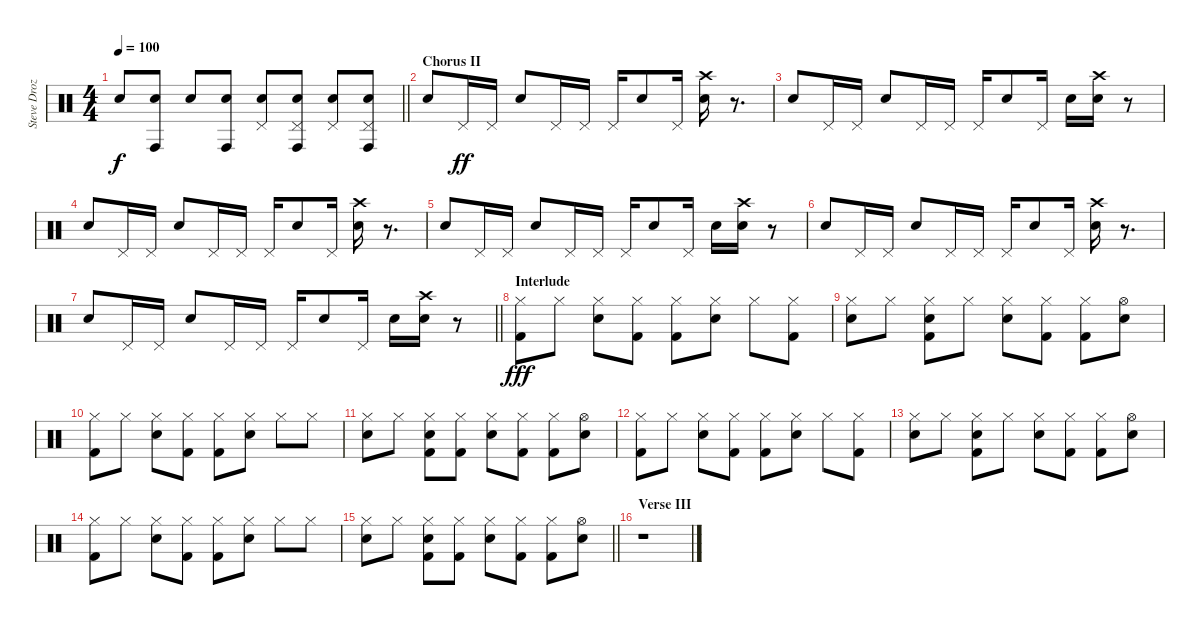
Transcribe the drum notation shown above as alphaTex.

\track ("Steve Drozd" "Steve Droz") {instrument percussion}
\staff {score}
\articulation defaults
\ts (4 4)
\tempo 100
\clef neutral
\barLineRight lightlight
\ks c "Snare (hit)".8{dy f}
("Conga high (hit)" "Snare (hit)").8 "Snare (hit)".8 ("Conga high (hit)" "Snare (hit)").8 ("Pedal Hi-Hat (hit)" "Snare (hit)").8 ("Pedal Hi-Hat (hit)" "Conga high (hit)" "Snare (hit)").8 ("Pedal Hi-Hat (hit)" "Snare (hit)").8 ("Pedal Hi-Hat (hit)" "Conga high (hit)" "Snare (hit)").8 |
\section ("" "Chorus II")
"Snare (hit) 2".8 "Pedal Hi-Hat (hit)".16{dy ff} "Pedal Hi-Hat (hit)".16 "Snare (hit) 2".8 "Pedal Hi-Hat (hit)".16 "Pedal Hi-Hat (hit)".16 "Pedal Hi-Hat (hit)".16 "Snare (hit) 2".8 "Pedal Hi-Hat (hit)".16 ("Crash high (hit)" "Snare (hit) 2").16 r.8{d} |
"Snare (hit) 2".8 "Pedal Hi-Hat (hit)".16 "Pedal Hi-Hat (hit)".16 "Snare (hit) 2".8 "Pedal Hi-Hat (hit)".16 "Pedal Hi-Hat (hit)".16 "Pedal Hi-Hat (hit)".16 "Snare (hit) 2".8 "Pedal Hi-Hat (hit)".16 "Snare (hit) 2".16 ("Crash high (hit)" "Snare (hit) 2").16 r.8 |
"Snare (hit) 2".8 "Pedal Hi-Hat (hit)".16 "Pedal Hi-Hat (hit)".16 "Snare (hit) 2".8 "Pedal Hi-Hat (hit)".16 "Pedal Hi-Hat (hit)".16 "Pedal Hi-Hat (hit)".16 "Snare (hit) 2".8 "Pedal Hi-Hat (hit)".16 ("Crash high (hit)" "Snare (hit) 2").16 r.8{d} |
"Snare (hit) 2".8 "Pedal Hi-Hat (hit)".16 "Pedal Hi-Hat (hit)".16 "Snare (hit) 2".8 "Pedal Hi-Hat (hit)".16 "Pedal Hi-Hat (hit)".16 "Pedal Hi-Hat (hit)".16 "Snare (hit) 2".8 "Pedal Hi-Hat (hit)".16 "Snare (hit) 2".16 ("Crash high (hit)" "Snare (hit) 2").16 r.8 |
"Snare (hit) 2".8 "Pedal Hi-Hat (hit)".16 "Pedal Hi-Hat (hit)".16 "Snare (hit) 2".8 "Pedal Hi-Hat (hit)".16 "Pedal Hi-Hat (hit)".16 "Pedal Hi-Hat (hit)".16 "Snare (hit) 2".8 "Pedal Hi-Hat (hit)".16 ("Crash high (hit)" "Snare (hit) 2").16 r.8{d} |
\barLineRight lightlight "Snare (hit) 2".8 "Pedal Hi-Hat (hit)".16 "Pedal Hi-Hat (hit)".16 "Snare (hit) 2".8 "Pedal Hi-Hat (hit)".16 "Pedal Hi-Hat (hit)".16 "Pedal Hi-Hat (hit)".16 "Snare (hit) 2".8 "Pedal Hi-Hat (hit)".16 "Snare (hit) 2".16
("Crash high (hit)" "Snare (hit) 2").16 r.8 |
\section ("" "Interlude")
("Kick (hit) 2" "Hi-Hat (closed)").8{dy fff} "Hi-Hat (closed)".8 ("Electric Snare (hit)" "Hi-Hat (closed)").8 ("Kick (hit) 2" "Hi-Hat (closed)").8 ("Kick (hit) 2" "Hi-Hat (closed)").8 ("Electric Snare (hit)" "Hi-Hat (closed)").8 "Hi-Hat (closed)".8 ("Kick (hit) 2" "Hi-Hat (closed)").8 |
("Electric Snare (hit)" "Hi-Hat (closed)").8 "Hi-Hat (closed)".8 ("Kick (hit) 2" "Electric Snare (hit)" "Hi-Hat (closed)").8 "Hi-Hat (closed)".8 ("Electric Snare (hit)" "Hi-Hat (closed)").8 ("Kick (hit) 2" "Hi-Hat (closed)").8 ("Kick (hit) 2" "Hi-Hat (closed)").8 ("Electric Snare (hit)" "Hi-Hat (open)").8 |
("Kick (hit) 2" "Hi-Hat (closed)").8 "Hi-Hat (closed)".8 ("Electric Snare (hit)" "Hi-Hat (closed)").8 ("Kick (hit) 2" "Hi-Hat (closed)").8 ("Kick (hit) 2" "Hi-Hat (closed)").8 ("Electric Snare (hit)" "Hi-Hat (closed)").8 "Hi-Hat (closed)".8 "Hi-Hat (closed)".8 |
("Electric Snare (hit)" "Hi-Hat (closed)").8 "Hi-Hat (closed)".8 ("Kick (hit) 2" "Electric Snare (hit)" "Hi-Hat (closed)").8 ("Kick (hit) 2" "Hi-Hat (closed)").8 ("Electric Snare (hit)" "Hi-Hat (closed)").8 ("Kick (hit) 2" "Hi-Hat (closed)").8 ("Kick (hit) 2" "Hi-Hat (closed)").8 ("Electric Snare (hit)" "Hi-Hat (open)").8 |
("Kick (hit) 2" "Hi-Hat (closed)").8 "Hi-Hat (closed)".8 ("Electric Snare (hit)" "Hi-Hat (closed)").8 ("Kick (hit) 2" "Hi-Hat (closed)").8 ("Kick (hit) 2" "Hi-Hat (closed)").8 ("Electric Snare (hit)" "Hi-Hat (closed)").8 "Hi-Hat (closed)".8 ("Kick (hit) 2" "Hi-Hat (closed)").8 |
("Electric Snare (hit)" "Hi-Hat (closed)").8 "Hi-Hat (closed)".8 ("Kick (hit) 2" "Electric Snare (hit)" "Hi-Hat (closed)").8 "Hi-Hat (closed)".8 ("Electric Snare (hit)" "Hi-Hat (closed)").8 ("Kick (hit) 2" "Hi-Hat (closed)").8 ("Kick (hit) 2" "Hi-Hat (closed)").8 ("Electric Snare (hit)" "Hi-Hat (open)").8 |
("Kick (hit) 2" "Hi-Hat (closed)").8 "Hi-Hat (closed)".8 ("Electric Snare (hit)" "Hi-Hat (closed)").8 ("Kick (hit) 2" "Hi-Hat (closed)").8 ("Kick (hit) 2" "Hi-Hat (closed)").8 ("Electric Snare (hit)" "Hi-Hat (closed)").8 "Hi-Hat (closed)".8 "Hi-Hat (closed)".8 |
\barLineRight lightlight
("Electric Snare (hit)" "Hi-Hat (closed)").8 "Hi-Hat (closed)".8 ("Kick (hit) 2" "Electric Snare (hit)" "Hi-Hat (closed)").8 ("Kick (hit) 2" "Hi-Hat (closed)").8 ("Electric Snare (hit)" "Hi-Hat (closed)").8 ("Kick (hit) 2" "Hi-Hat (closed)").8 ("Kick (hit) 2" "Hi-Hat (closed)").8 ("Electric Snare (hit)" "Hi-Hat (open)").8 |
\section ("" "Verse III")
r.1
